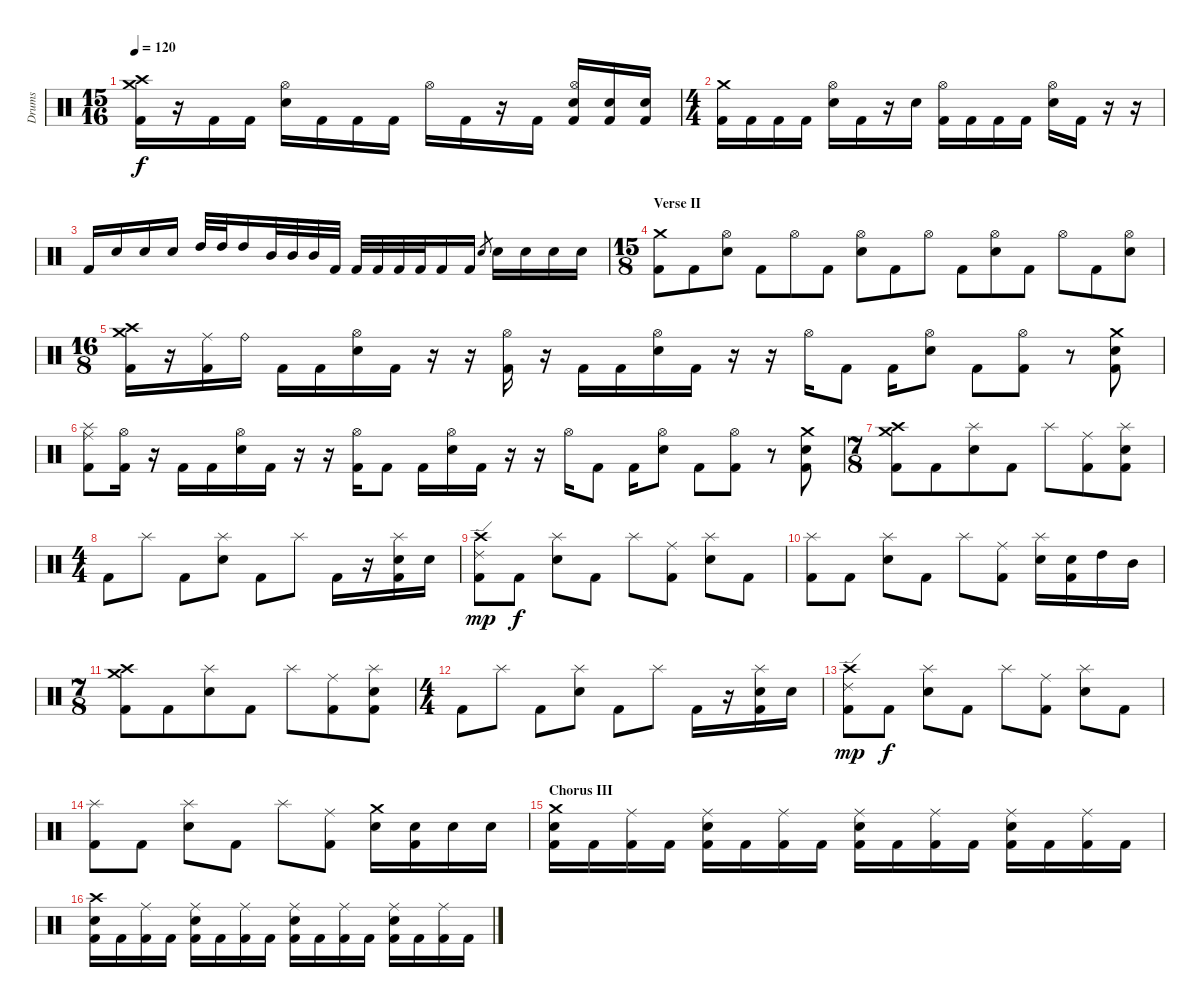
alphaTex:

\track ("Drums" "Drums") {instrument percussion}
\staff {score}
\articulation defaults
\ts (15 16)
\tempo 120
\clef neutral
\ks c
("Crash medium (hit)" "Crash high (hit)" "Kick (hit) 2").16{dy f} r.16 "Kick (hit) 2".16 "Kick (hit) 2".16 ("Hi-Hat (open)" "Electric Snare (hit)").16 "Kick (hit) 2".16 "Kick (hit) 2".16 "Kick (hit) 2".16 "Hi-Hat (open)".16 "Kick (hit) 2".16 r.16 "Kick (hit) 2".16 ("Hi-Hat (open)" "Electric Snare (hit)" "Kick (hit) 2").16 ("Electric Snare (hit)" "Kick (hit) 2").16 ("Electric Snare (hit)" "Kick (hit) 2").16 |
\ts (4 4)
("Crash medium (hit)" "Kick (hit) 2").16 "Kick (hit) 2".16 "Kick (hit) 2".16 "Kick (hit) 2".16 ("Hi-Hat (open)" "Electric Snare (hit)").16 "Kick (hit) 2".16 r.16 "Electric Snare (hit)".16 ("Hi-Hat (open)" "Kick (hit) 2").16 "Kick (hit) 2".16 "Kick (hit) 2".16 "Kick (hit) 2".16 ("Hi-Hat (open)" "Electric Snare (hit)").16 "Kick (hit) 2".16 r.16 r.16 |
"Kick (hit) 2".16 "Electric Snare (hit)".16 "Electric Snare (hit)".16 "Electric Snare (hit)".16 "High Tom (hit)".32 "High Tom (hit)".32 "High Tom (hit)".16 "Mid Tom (hit)".32 "Mid Tom (hit)".32 "Mid Tom (hit)".32 "Kick (hit) 2".32 "Kick (hit) 2".32 "Kick (hit) 2".32 "Kick (hit) 2".32 "Kick (hit) 2".32 "Kick (hit) 2".16 "Kick (hit) 2".16 "Electric Snare (hit)".8{gr} "Electric Snare (hit)".16 "Electric Snare (hit)".16 "Electric Snare (hit)".16 "Electric Snare (hit)".16 |
\ts (15 8)
\section ("" "Verse II")
("Crash medium (hit)" "Kick (hit) 2").8 "Kick (hit) 2".8 ("Hi-Hat (open)" "Electric Snare (hit)").8 "Kick (hit) 2".8 "Hi-Hat (open)".8 "Kick (hit) 2".8 ("Hi-Hat (open)" "Electric Snare (hit)").8 "Kick (hit) 2".8 "Hi-Hat (open)".8 "Kick (hit) 2".8 ("Hi-Hat (open)" "Electric Snare (hit)").8 "Kick (hit) 2".8 "Hi-Hat (open)".8 "Kick (hit) 2".8 ("Hi-Hat (open)" "Electric Snare (hit)").8 |
\ts (16 8)
("Crash medium (hit)" "Crash high (hit)" "Kick (hit) 2").16 r.16 ("Ride (middle)" "Kick (hit) 2").16 "Ride (bell)".16 "Kick (hit) 2".16 "Kick (hit) 2".16 ("Hi-Hat (open)" "Electric Snare (hit)").16 "Kick (hit) 2".16 r.16 r.16 ("Hi-Hat (open)" "Kick (hit) 2").16 r.16 "Kick (hit) 2".16 "Kick (hit) 2".16 ("Hi-Hat (open)" "Electric Snare (hit)").16 "Kick (hit) 2".16 r.16 r.16 "Hi-Hat (open)".16 "Kick (hit) 2".8 "Kick (hit) 2".16 ("Hi-Hat (open)" "Electric Snare (hit)").8 "Kick (hit) 2".8 ("Hi-Hat (open)" "Kick (hit) 2").8 r.8 ("Crash medium (hit)" "Electric Snare (hit)" "Kick (hit) 2").8 |
("Splash (hit)" "Ride (middle)" "Kick (hit) 2").8 ("Hi-Hat (open)" "Kick (hit) 2").16 r.16 "Kick (hit) 2".16 "Kick (hit) 2".16 ("Hi-Hat (open)" "Electric Snare (hit)").16 "Kick (hit) 2".16 r.16 r.16 ("Hi-Hat (open)" "Kick (hit) 2").16 "Kick (hit) 2".8 "Kick (hit) 2".16 ("Hi-Hat (open)" "Electric Snare (hit)").16 "Kick (hit) 2".16 r.16 r.16 "Hi-Hat (open)".16 "Kick (hit) 2".8 "Kick (hit) 2".16 ("Hi-Hat (open)" "Electric Snare (hit)").8 "Kick (hit) 2".8 ("Hi-Hat (open)" "Kick (hit) 2").8 r.8 ("Crash medium (hit)" "Electric Snare (hit)" "Kick (hit) 2").8 |
\ts (7 8)
("Crash high (hit)" "Crash medium (hit)" "Kick (hit) 2").8 "Kick (hit) 2".8 ("Splash (hit)" "Electric Snare (hit)").8 "Kick (hit) 2".8 "Splash (hit)".8 ("Ride (middle)" "Kick (hit) 2").8 ("Splash (hit)" "Electric Snare (hit)" "Kick (hit) 2").8 |
\ts (4 4)
"Kick (hit) 2".8 "Splash (hit)".8 "Kick (hit) 2".8 ("Splash (hit)" "Electric Snare (hit)").8 "Kick (hit) 2".8 "Splash (hit)".8 "Kick (hit) 2".16 r.16 ("Splash (hit)" "Electric Snare (hit)" "Kick (hit) 2").16 "Electric Snare (hit)".16 |
("Ride (edge) 2" "Crash high (hit)" "Kick (hit) 2").8{dy mp} "Kick (hit) 2".8{dy f} ("Splash (hit)" "Electric Snare (hit)").8 "Kick (hit) 2".8 "Splash (hit)".8 ("Ride (middle)" "Kick (hit) 2").8 ("Splash (hit)" "Electric Snare (hit)").8 "Kick (hit) 2".8 |
("Splash (hit)" "Kick (hit) 2").8 "Kick (hit) 2".8 ("Splash (hit)" "Electric Snare (hit)").8 "Kick (hit) 2".8 "Splash (hit)".8 ("Ride (middle)" "Kick (hit) 2").8 ("Splash (hit)" "Electric Snare (hit)").16 ("Electric Snare (hit)" "Kick (hit) 2").16 "High Tom (hit)".16 "Mid Tom (hit)".16 |
\ts (7 8)
("Crash high (hit)" "Crash medium (hit)" "Kick (hit) 2").8 "Kick (hit) 2".8 ("Splash (hit)" "Electric Snare (hit)").8 "Kick (hit) 2".8 "Splash (hit)".8 ("Ride (middle)" "Kick (hit) 2").8 ("Splash (hit)" "Electric Snare (hit)" "Kick (hit) 2").8 |
\ts (4 4)
"Kick (hit) 2".8 "Splash (hit)".8 "Kick (hit) 2".8 ("Splash (hit)" "Electric Snare (hit)").8 "Kick (hit) 2".8 "Splash (hit)".8 "Kick (hit) 2".16 r.16 ("Splash (hit)" "Electric Snare (hit)" "Kick (hit) 2").16 "Electric Snare (hit)".16 |
("Ride (edge) 2" "Crash high (hit)" "Kick (hit) 2").8{dy mp} "Kick (hit) 2".8{dy f} ("Splash (hit)" "Electric Snare (hit)").8 "Kick (hit) 2".8 "Splash (hit)".8 ("Ride (middle)" "Kick (hit) 2").8 ("Splash (hit)" "Electric Snare (hit)").8 "Kick (hit) 2".8 |
("Splash (hit)" "Kick (hit) 2").8 "Kick (hit) 2".8 ("Splash (hit)" "Electric Snare (hit)").8 "Kick (hit) 2".8 "Splash (hit)".8 ("Ride (middle)" "Kick (hit) 2").8 ("Crash medium (hit)" "Electric Snare (hit)").16 ("Electric Snare (hit)" "Kick (hit) 2").16 "Electric Snare (hit)".16 "Electric Snare (hit)".16 |
\section ("" "Chorus III")
("Crash medium (hit)" "Electric Snare (hit)" "Kick (hit) 2").16 "Kick (hit) 2".16 ("Ride (middle)" "Kick (hit) 2").16 "Kick (hit) 2".16 ("Ride (middle)" "Electric Snare (hit)" "Kick (hit) 2").16 "Kick (hit) 2".16 ("Ride (middle)" "Kick (hit) 2").16 "Kick (hit) 2".16 ("Ride (middle)" "Electric Snare (hit)" "Kick (hit) 2").16 "Kick (hit) 2".16 ("Ride (middle)" "Kick (hit) 2").16 "Kick (hit) 2".16 ("Ride (middle)" "Electric Snare (hit)" "Kick (hit) 2").16 "Kick (hit) 2".16 ("Ride (middle)" "Kick (hit) 2").16 "Kick (hit) 2".16 |
("Crash high (hit)" "Electric Snare (hit)" "Kick (hit) 2").16 "Kick (hit) 2".16 ("Ride (middle)" "Kick (hit) 2").16 "Kick (hit) 2".16 ("Ride (middle)" "Electric Snare (hit)" "Kick (hit) 2").16 "Kick (hit) 2".16 ("Ride (middle)" "Kick (hit) 2").16 "Kick (hit) 2".16 ("Ride (middle)" "Electric Snare (hit)" "Kick (hit) 2").16 "Kick (hit) 2".16 ("Ride (middle)" "Kick (hit) 2").16 "Kick (hit) 2".16 ("Ride (middle)" "Electric Snare (hit)" "Kick (hit) 2").16 "Kick (hit) 2".16 ("Ride (middle)" "Kick (hit) 2").16 "Kick (hit) 2".16
